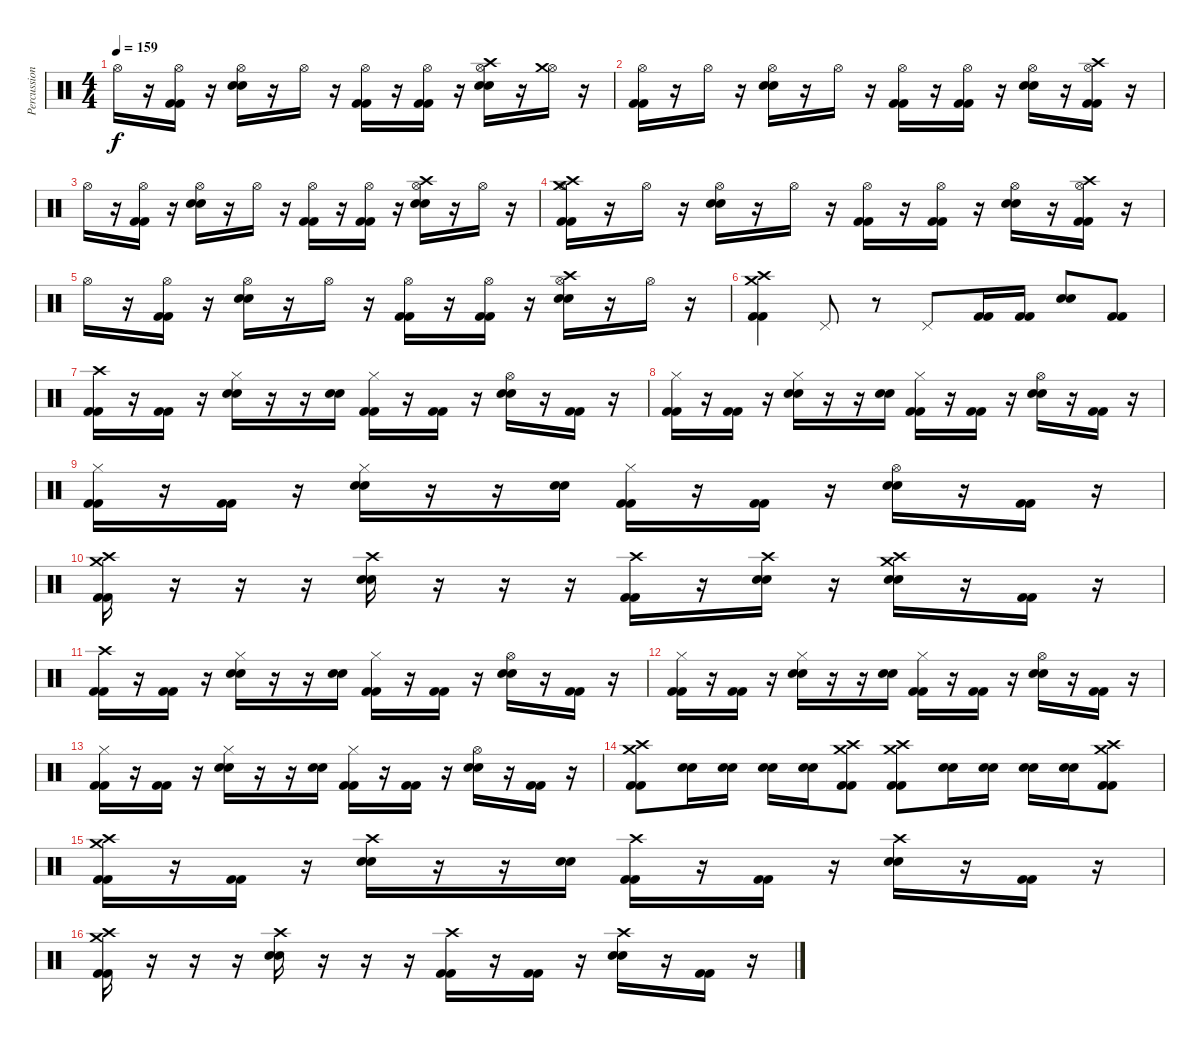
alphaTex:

\track ("Percussioni" "Percussion") {instrument percussion}
\staff {score}
\articulation defaults
\ts (4 4)
\tempo 159
\clef neutral
\ks c "Hi-Hat (open)".16{dy f}
r.16 ("Hi-Hat (open)" "Kick (hit) 2" "Kick (hit) 2").16 r.16 ("Hi-Hat (open)" "Snare (hit) 2" "Snare (hit) 2").16 r.16 "Hi-Hat (open)".16 r.16 ("Hi-Hat (open)" "Kick (hit) 2" "Kick (hit) 2").16 r.16 ("Hi-Hat (open)" "Kick (hit) 2" "Kick (hit) 2").16 r.16 ("Hi-Hat (open)" "Crash high (hit)" "Snare (hit) 2" "Snare (hit) 2").16 r.16 ("Hi-Hat (open)" "Crash medium (hit)").16 r.16 |
("Hi-Hat (open)" "Kick (hit) 2" "Kick (hit) 2").16 r.16 "Hi-Hat (open)".16 r.16 ("Hi-Hat (open)" "Snare (hit) 2" "Snare (hit) 2").16 r.16 "Hi-Hat (open)".16 r.16 ("Hi-Hat (open)" "Kick (hit) 2" "Kick (hit) 2").16 r.16 ("Hi-Hat (open)" "Kick (hit) 2" "Kick (hit) 2").16 r.16 ("Hi-Hat (open)" "Snare (hit) 2" "Snare (hit) 2").16 r.16 ("Hi-Hat (open)" "Crash high (hit)" "Kick (hit) 2" "Kick (hit) 2").16 r.16 |
"Hi-Hat (open)".16 r.16 ("Hi-Hat (open)" "Kick (hit) 2" "Kick (hit) 2").16 r.16 ("Hi-Hat (open)" "Snare (hit) 2" "Snare (hit) 2").16 r.16 "Hi-Hat (open)".16 r.16 ("Hi-Hat (open)" "Kick (hit) 2" "Kick (hit) 2").16 r.16 ("Hi-Hat (open)" "Kick (hit) 2" "Kick (hit) 2").16 r.16 ("Hi-Hat (open)" "Crash high (hit)" "Snare (hit) 2" "Snare (hit) 2").16 r.16 "Hi-Hat (open)".16 r.16 |
("Hi-Hat (open)" "Crash high (hit)" "Crash medium (hit)" "Kick (hit) 2" "Kick (hit) 2").16 r.16 "Hi-Hat (open)".16 r.16 ("Hi-Hat (open)" "Snare (hit) 2" "Snare (hit) 2").16 r.16 "Hi-Hat (open)".16 r.16 ("Hi-Hat (open)" "Kick (hit) 2" "Kick (hit) 2").16 r.16 ("Hi-Hat (open)" "Kick (hit) 2" "Kick (hit) 2").16 r.16 ("Hi-Hat (open)" "Snare (hit) 2" "Snare (hit) 2").16 r.16 ("Hi-Hat (open)" "Crash high (hit)" "Kick (hit) 2" "Kick (hit) 2").16 r.16 |
"Hi-Hat (open)".16 r.16 ("Hi-Hat (open)" "Kick (hit) 2" "Kick (hit) 2").16 r.16 ("Hi-Hat (open)" "Snare (hit) 2" "Snare (hit) 2").16 r.16 "Hi-Hat (open)".16 r.16 ("Hi-Hat (open)" "Kick (hit) 2" "Kick (hit) 2").16 r.16 ("Hi-Hat (open)" "Kick (hit) 2" "Kick (hit) 2").16 r.16 ("Hi-Hat (open)" "Crash high (hit)" "Snare (hit) 2" "Snare (hit) 2").16 r.16 "Hi-Hat (open)".16 r.16 |
("Crash medium (hit)" "Crash high (hit)" "Kick (hit) 2" "Kick (hit) 2").4 "Pedal Hi-Hat (hit)".8 r.8 "Pedal Hi-Hat (hit)".8 ("Kick (hit) 2" "Kick (hit) 2").16 ("Kick (hit) 2" "Kick (hit) 2").16 ("Snare (hit) 2" "Snare (hit) 2").8 ("Kick (hit) 2" "Kick (hit) 2").8 |
("Crash high (hit)" "Kick (hit) 2" "Kick (hit) 2").16 r.16 ("Kick (hit) 2" "Kick (hit) 2").16 r.16 ("Hi-Hat (closed)" "Snare (hit) 2" "Snare (hit) 2").16 r.16 r.16 ("Snare (hit) 2" "Snare (hit) 2").16 ("Hi-Hat (closed)" "Kick (hit) 2" "Kick (hit) 2").16 r.16 ("Kick (hit) 2" "Kick (hit) 2").16 r.16 ("Hi-Hat (open)" "Snare (hit) 2" "Snare (hit) 2").16 r.16 ("Kick (hit) 2" "Kick (hit) 2").16 r.16 |
("Hi-Hat (closed)" "Kick (hit) 2" "Kick (hit) 2").16 r.16 ("Kick (hit) 2" "Kick (hit) 2").16 r.16 ("Hi-Hat (closed)" "Snare (hit) 2" "Snare (hit) 2").16 r.16 r.16 ("Snare (hit) 2" "Snare (hit) 2").16 ("Hi-Hat (closed)" "Kick (hit) 2" "Kick (hit) 2").16 r.16 ("Kick (hit) 2" "Kick (hit) 2").16 r.16 ("Hi-Hat (open)" "Snare (hit) 2" "Snare (hit) 2").16 r.16 ("Kick (hit) 2" "Kick (hit) 2").16 r.16 |
("Hi-Hat (closed)" "Kick (hit) 2" "Kick (hit) 2").16 r.16 ("Kick (hit) 2" "Kick (hit) 2").16 r.16 ("Hi-Hat (closed)" "Snare (hit) 2" "Snare (hit) 2").16 r.16 r.16 ("Snare (hit) 2" "Snare (hit) 2").16 ("Hi-Hat (closed)" "Kick (hit) 2" "Kick (hit) 2").16 r.16 ("Kick (hit) 2" "Kick (hit) 2").16 r.16 ("Hi-Hat (open)" "Snare (hit) 2" "Snare (hit) 2").16 r.16 ("Kick (hit) 2" "Kick (hit) 2").16 r.16 |
("Crash high (hit)" "Crash medium (hit)" "Kick (hit) 2" "Kick (hit) 2").16 r.16 r.16 r.16 ("Crash high (hit)" "Snare (hit) 2" "Snare (hit) 2").16 r.16 r.16 r.16 ("Crash high (hit)" "Kick (hit) 2" "Kick (hit) 2").16 r.16 ("Crash high (hit)" "Snare (hit) 2" "Snare (hit) 2").16 r.16 ("Crash high (hit)" "Crash medium (hit)" "Snare (hit) 2" "Snare (hit) 2").16 r.16 ("Kick (hit) 2" "Kick (hit) 2").16 r.16 |
("Crash high (hit)" "Kick (hit) 2" "Kick (hit) 2").16 r.16 ("Kick (hit) 2" "Kick (hit) 2").16 r.16 ("Hi-Hat (closed)" "Snare (hit) 2" "Snare (hit) 2").16 r.16 r.16 ("Snare (hit) 2" "Snare (hit) 2").16 ("Hi-Hat (closed)" "Kick (hit) 2" "Kick (hit) 2").16 r.16 ("Kick (hit) 2" "Kick (hit) 2").16 r.16 ("Hi-Hat (open)" "Snare (hit) 2" "Snare (hit) 2").16 r.16 ("Kick (hit) 2" "Kick (hit) 2").16 r.16 |
("Hi-Hat (closed)" "Kick (hit) 2" "Kick (hit) 2").16 r.16 ("Kick (hit) 2" "Kick (hit) 2").16 r.16 ("Hi-Hat (closed)" "Snare (hit) 2" "Snare (hit) 2").16 r.16 r.16 ("Snare (hit) 2" "Snare (hit) 2").16 ("Hi-Hat (closed)" "Kick (hit) 2" "Kick (hit) 2").16 r.16 ("Kick (hit) 2" "Kick (hit) 2").16 r.16 ("Hi-Hat (open)" "Snare (hit) 2" "Snare (hit) 2").16 r.16 ("Kick (hit) 2" "Kick (hit) 2").16 r.16 |
("Hi-Hat (closed)" "Kick (hit) 2" "Kick (hit) 2").16 r.16 ("Kick (hit) 2" "Kick (hit) 2").16 r.16 ("Hi-Hat (closed)" "Snare (hit) 2" "Snare (hit) 2").16 r.16 r.16 ("Snare (hit) 2" "Snare (hit) 2").16 ("Hi-Hat (closed)" "Kick (hit) 2" "Kick (hit) 2").16 r.16 ("Kick (hit) 2" "Kick (hit) 2").16 r.16 ("Hi-Hat (open)" "Snare (hit) 2" "Snare (hit) 2").16 r.16 ("Kick (hit) 2" "Kick (hit) 2").16 r.16 |
("Crash medium (hit)" "Crash high (hit)" "Kick (hit) 2" "Kick (hit) 2").8 ("Snare (hit) 2" "Snare (hit) 2").16 ("Snare (hit) 2" "Snare (hit) 2").16 ("Snare (hit) 2" "Snare (hit) 2").16 ("Snare (hit) 2" "Snare (hit) 2").16 ("Crash high (hit)" "Crash medium (hit)" "Kick (hit) 2" "Kick (hit) 2").8 ("Crash medium (hit)" "Crash high (hit)" "Kick (hit) 2" "Kick (hit) 2").8 ("Snare (hit) 2" "Snare (hit) 2").16 ("Snare (hit) 2" "Snare (hit) 2").16 ("Snare (hit) 2" "Snare (hit) 2").16 ("Snare (hit) 2" "Snare (hit) 2").16 ("Crash medium (hit)" "Crash high (hit)" "Kick (hit) 2" "Kick (hit) 2").8 |
("Crash high (hit)" "Crash medium (hit)" "Kick (hit) 2" "Kick (hit) 2").16 r.16 ("Kick (hit) 2" "Kick (hit) 2").16 r.16 ("Crash high (hit)" "Snare (hit) 2" "Snare (hit) 2").16 r.16 r.16 ("Snare (hit) 2" "Snare (hit) 2").16 ("Crash high (hit)" "Kick (hit) 2" "Kick (hit) 2").16 r.16 ("Kick (hit) 2" "Kick (hit) 2").16 r.16 ("Crash high (hit)" "Snare (hit) 2" "Snare (hit) 2").16 r.16 ("Kick (hit) 2" "Kick (hit) 2").16 r.16 |
("Crash high (hit)" "Crash medium (hit)" "Kick (hit) 2" "Kick (hit) 2").16 r.16 r.16 r.16 ("Crash high (hit)" "Snare (hit) 2" "Snare (hit) 2").16 r.16 r.16 r.16 ("Crash high (hit)" "Kick (hit) 2" "Kick (hit) 2").16 r.16 ("Kick (hit) 2" "Kick (hit) 2").16 r.16 ("Crash high (hit)" "Snare (hit) 2" "Snare (hit) 2").16 r.16 ("Kick (hit) 2" "Kick (hit) 2").16 r.16
